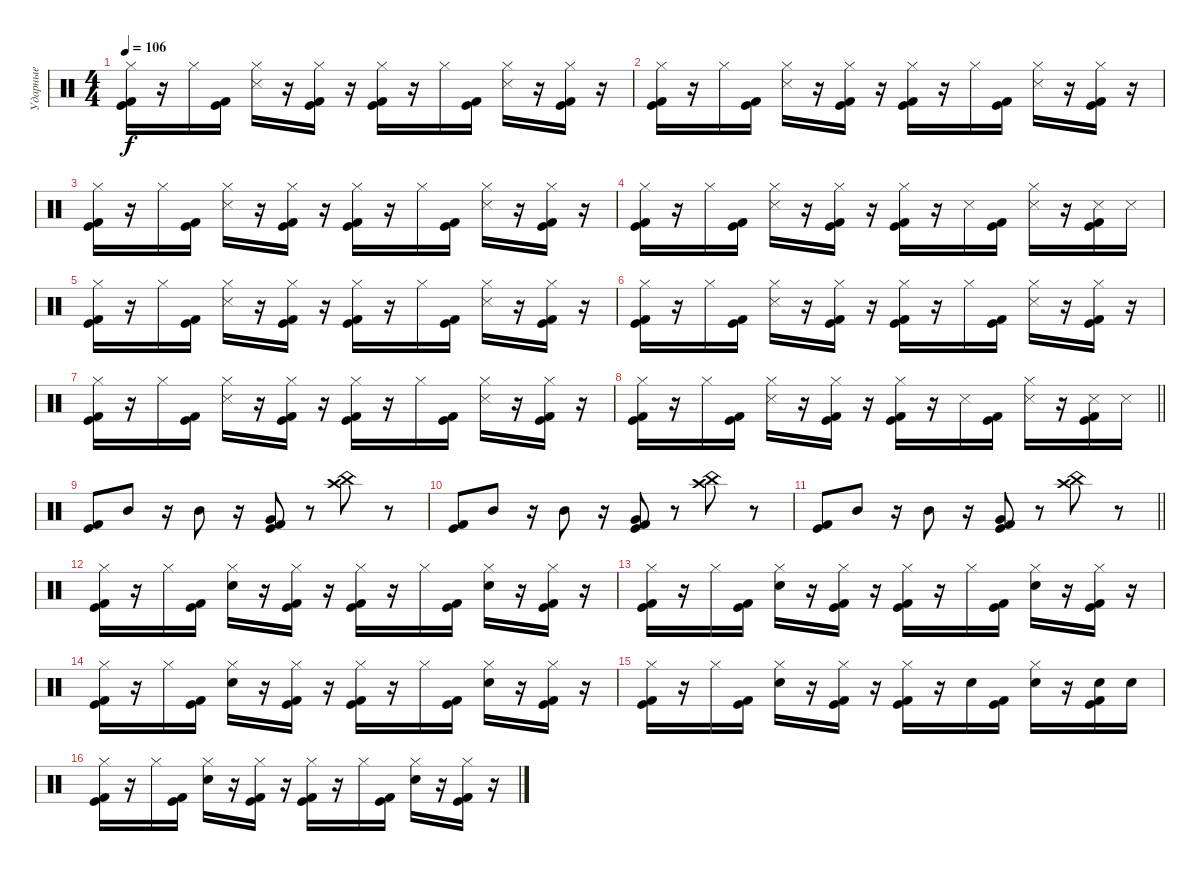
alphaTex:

\track ("Ударные" "Ударные") {instrument percussion}
\staff {score}
\articulation defaults
\ts (4 4)
\tempo 106
\clef neutral
\ks c
("Hi-Hat (closed)" "Kick (hit) 2" "Kick (hit)").16{dy f} r.16 "Hi-Hat (closed)".16 ("Kick (hit) 2" "Kick (hit)").16 ("Hi-Hat (closed)" "Snare (side stick) 3").16 r.16 ("Hi-Hat (closed)" "Kick (hit) 2" "Kick (hit)").16 r.16 ("Hi-Hat (closed)" "Kick (hit) 2" "Kick (hit)").16 r.16 "Hi-Hat (closed)".16 ("Kick (hit) 2" "Kick (hit)").16 ("Hi-Hat (closed)" "Snare (side stick) 3").16 r.16 ("Hi-Hat (closed)" "Kick (hit) 2" "Kick (hit)").16 r.16 |
("Hi-Hat (closed)" "Kick (hit) 2" "Kick (hit)").16 r.16 "Hi-Hat (closed)".16 ("Kick (hit) 2" "Kick (hit)").16 ("Hi-Hat (closed)" "Snare (side stick) 3").16 r.16 ("Hi-Hat (closed)" "Kick (hit) 2" "Kick (hit)").16 r.16 ("Hi-Hat (closed)" "Kick (hit) 2" "Kick (hit)").16 r.16 "Hi-Hat (closed)".16 ("Kick (hit) 2" "Kick (hit)").16 ("Hi-Hat (closed)" "Snare (side stick) 3").16 r.16 ("Hi-Hat (closed)" "Kick (hit) 2" "Kick (hit)").16 r.16 |
("Hi-Hat (closed)" "Kick (hit) 2" "Kick (hit)").16 r.16 "Hi-Hat (closed)".16 ("Kick (hit) 2" "Kick (hit)").16 ("Hi-Hat (closed)" "Snare (side stick) 3").16 r.16 ("Hi-Hat (closed)" "Kick (hit) 2" "Kick (hit)").16 r.16 ("Hi-Hat (closed)" "Kick (hit) 2" "Kick (hit)").16 r.16 "Hi-Hat (closed)".16 ("Kick (hit) 2" "Kick (hit)").16 ("Hi-Hat (closed)" "Snare (side stick) 3").16 r.16 ("Hi-Hat (closed)" "Kick (hit) 2" "Kick (hit)").16 r.16 |
("Hi-Hat (closed)" "Kick (hit) 2" "Kick (hit)").16 r.16 "Hi-Hat (closed)".16 ("Kick (hit) 2" "Kick (hit)").16 ("Hi-Hat (closed)" "Snare (side stick) 3").16 r.16 ("Hi-Hat (closed)" "Kick (hit) 2" "Kick (hit)").16 r.16 ("Hi-Hat (closed)" "Kick (hit) 2" "Kick (hit)").16 r.16 "Snare (side stick) 3".16 ("Kick (hit) 2" "Kick (hit)").16 ("Hi-Hat (closed)" "Snare (side stick) 3").16 r.16 ("Snare (side stick) 3" "Kick (hit) 2" "Kick (hit)").16 "Snare (side stick) 3".16 |
("Hi-Hat (closed)" "Kick (hit) 2" "Kick (hit)").16 r.16 "Hi-Hat (closed)".16 ("Kick (hit) 2" "Kick (hit)").16 ("Hi-Hat (closed)" "Snare (side stick) 3").16 r.16 ("Hi-Hat (closed)" "Kick (hit) 2" "Kick (hit)").16 r.16 ("Hi-Hat (closed)" "Kick (hit) 2" "Kick (hit)").16 r.16 "Hi-Hat (closed)".16 ("Kick (hit) 2" "Kick (hit)").16 ("Hi-Hat (closed)" "Snare (side stick) 3").16 r.16 ("Hi-Hat (closed)" "Kick (hit) 2" "Kick (hit)").16 r.16 |
("Hi-Hat (closed)" "Kick (hit) 2" "Kick (hit)").16 r.16 "Hi-Hat (closed)".16 ("Kick (hit) 2" "Kick (hit)").16 ("Hi-Hat (closed)" "Snare (side stick) 3").16 r.16 ("Hi-Hat (closed)" "Kick (hit) 2" "Kick (hit)").16 r.16 ("Hi-Hat (closed)" "Kick (hit) 2" "Kick (hit)").16 r.16 "Hi-Hat (closed)".16 ("Kick (hit) 2" "Kick (hit)").16 ("Hi-Hat (closed)" "Snare (side stick) 3").16 r.16 ("Hi-Hat (closed)" "Kick (hit) 2" "Kick (hit)").16 r.16 |
("Hi-Hat (closed)" "Kick (hit) 2" "Kick (hit)").16 r.16 "Hi-Hat (closed)".16 ("Kick (hit) 2" "Kick (hit)").16 ("Hi-Hat (closed)" "Snare (side stick) 3").16 r.16 ("Hi-Hat (closed)" "Kick (hit) 2" "Kick (hit)").16 r.16 ("Hi-Hat (closed)" "Kick (hit) 2" "Kick (hit)").16 r.16 "Hi-Hat (closed)".16 ("Kick (hit) 2" "Kick (hit)").16 ("Hi-Hat (closed)" "Snare (side stick) 3").16 r.16 ("Hi-Hat (closed)" "Kick (hit) 2" "Kick (hit)").16 r.16 |
\barLineRight lightlight
("Hi-Hat (closed)" "Kick (hit) 2" "Kick (hit)").16 r.16 "Hi-Hat (closed)".16 ("Kick (hit) 2" "Kick (hit)").16 ("Hi-Hat (closed)" "Snare (side stick) 3").16 r.16 ("Hi-Hat (closed)" "Kick (hit) 2" "Kick (hit)").16 r.16 ("Hi-Hat (closed)" "Kick (hit) 2" "Kick (hit)").16 r.16 "Snare (side stick) 3".16 ("Kick (hit) 2" "Kick (hit)").16 ("Hi-Hat (closed)" "Snare (side stick) 3").16 r.16 ("Snare (side stick) 3" "Kick (hit) 2" "Kick (hit)").16 "Snare (side stick) 3".16 |
("Kick (hit) 2" "Kick (hit)").8 "Mid Tom (hit)".8 r.16 "Mid Tom (hit)".8 r.16 ("Very Low Tom (hit)" "Kick (hit) 2" "Kick (hit)").8 r.8 ("Crash high (hit)" "China (hit)").8 r.8 |
("Kick (hit) 2" "Kick (hit)").8 "Mid Tom (hit)".8 r.16 "Mid Tom (hit)".8 r.16 ("Very Low Tom (hit)" "Kick (hit) 2" "Kick (hit)").8 r.8 ("Crash high (hit)" "China (hit)").8 r.8 |
\barLineRight lightlight
("Kick (hit) 2" "Kick (hit)").8 "Mid Tom (hit)".8 r.16 "Mid Tom (hit)".8 r.16 ("Very Low Tom (hit)" "Kick (hit) 2" "Kick (hit)").8 r.8 ("Crash high (hit)" "China (hit)").8 r.8 |
("Hi-Hat (closed)" "Kick (hit) 2" "Kick (hit)").16 r.16 "Hi-Hat (closed)".16 ("Kick (hit) 2" "Kick (hit)").16 ("Hi-Hat (closed)" "Electric Snare (hit)").16 r.16 ("Hi-Hat (closed)" "Kick (hit) 2" "Kick (hit)").16 r.16 ("Hi-Hat (closed)" "Kick (hit) 2" "Kick (hit)").16 r.16 "Hi-Hat (closed)".16 ("Kick (hit) 2" "Kick (hit)").16 ("Hi-Hat (closed)" "Electric Snare (hit)").16 r.16 ("Hi-Hat (closed)" "Kick (hit) 2" "Kick (hit)").16 r.16 |
("Hi-Hat (closed)" "Kick (hit) 2" "Kick (hit)").16 r.16 "Hi-Hat (closed)".16 ("Kick (hit) 2" "Kick (hit)").16 ("Hi-Hat (closed)" "Electric Snare (hit)").16 r.16 ("Hi-Hat (closed)" "Kick (hit) 2" "Kick (hit)").16 r.16 ("Hi-Hat (closed)" "Kick (hit) 2" "Kick (hit)").16 r.16 "Hi-Hat (closed)".16 ("Kick (hit) 2" "Kick (hit)").16 ("Hi-Hat (closed)" "Electric Snare (hit)").16 r.16 ("Hi-Hat (closed)" "Kick (hit) 2" "Kick (hit)").16 r.16 |
("Hi-Hat (closed)" "Kick (hit) 2" "Kick (hit)").16 r.16 "Hi-Hat (closed)".16 ("Kick (hit) 2" "Kick (hit)").16 ("Hi-Hat (closed)" "Electric Snare (hit)").16 r.16 ("Hi-Hat (closed)" "Kick (hit) 2" "Kick (hit)").16 r.16 ("Hi-Hat (closed)" "Kick (hit) 2" "Kick (hit)").16 r.16 "Hi-Hat (closed)".16 ("Kick (hit) 2" "Kick (hit)").16 ("Hi-Hat (closed)" "Electric Snare (hit)").16 r.16 ("Hi-Hat (closed)" "Kick (hit) 2" "Kick (hit)").16 r.16 |
("Hi-Hat (closed)" "Kick (hit) 2" "Kick (hit)").16 r.16 "Hi-Hat (closed)".16 ("Kick (hit) 2" "Kick (hit)").16 ("Hi-Hat (closed)" "Electric Snare (hit)").16 r.16 ("Hi-Hat (closed)" "Kick (hit) 2" "Kick (hit)").16 r.16 ("Hi-Hat (closed)" "Kick (hit) 2" "Kick (hit)").16 r.16 "Electric Snare (hit)".16 ("Kick (hit) 2" "Kick (hit)").16 ("Hi-Hat (closed)" "Electric Snare (hit)").16 r.16 ("Electric Snare (hit)" "Kick (hit) 2" "Kick (hit)").16 "Electric Snare (hit)".16 |
("Hi-Hat (closed)" "Kick (hit) 2" "Kick (hit)").16 r.16 "Hi-Hat (closed)".16 ("Kick (hit) 2" "Kick (hit)").16 ("Hi-Hat (closed)" "Electric Snare (hit)").16 r.16 ("Hi-Hat (closed)" "Kick (hit) 2" "Kick (hit)").16 r.16 ("Hi-Hat (closed)" "Kick (hit) 2" "Kick (hit)").16 r.16 "Hi-Hat (closed)".16 ("Kick (hit) 2" "Kick (hit)").16 ("Hi-Hat (closed)" "Electric Snare (hit)").16 r.16 ("Hi-Hat (closed)" "Kick (hit) 2" "Kick (hit)").16 r.16
